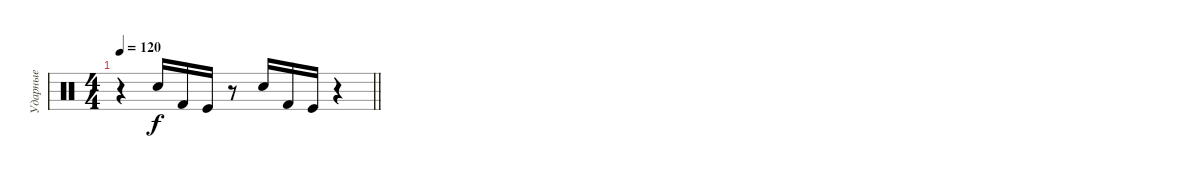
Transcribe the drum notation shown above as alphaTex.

\track ("Ударные" "Ударные") {instrument percussion}
\staff {score}
\articulation defaults
\ts (4 4)
\tempo 120
\clef neutral
\barLineRight lightlight
\ks c
r.4{dy f} "Electric Snare (hit)".16 "Kick (hit) 2".16 "Kick (hit)".16 r.8 "Electric Snare (hit)".16 "Kick (hit) 2".16 "Kick (hit)".16 r.4
